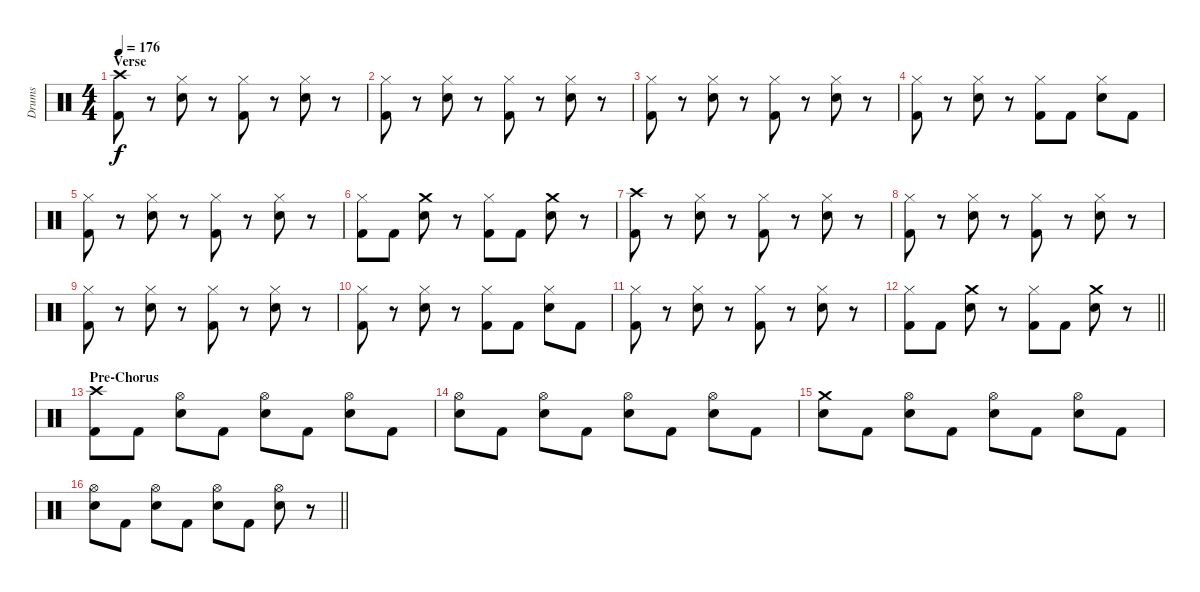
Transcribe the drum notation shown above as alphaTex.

\track ("Drums" "Drums") {instrument percussion}
\staff {score}
\articulation defaults
\ts (4 4)
\section ("" "Verse")
\tempo 176
\clef neutral
\ks c
("Crash high (hit)" "Kick (hit) 2").8{dy f} r.8 ("Hi-Hat (closed)" "Electric Snare (hit)").8 r.8 ("Hi-Hat (closed)" "Kick (hit) 2").8 r.8 ("Hi-Hat (closed)" "Electric Snare (hit)").8 r.8 |
("Hi-Hat (closed)" "Kick (hit) 2").8 r.8 ("Hi-Hat (closed)" "Electric Snare (hit)").8 r.8 ("Hi-Hat (closed)" "Kick (hit) 2").8 r.8 ("Hi-Hat (closed)" "Electric Snare (hit)").8 r.8 |
("Hi-Hat (closed)" "Kick (hit) 2").8 r.8 ("Hi-Hat (closed)" "Electric Snare (hit)").8 r.8 ("Hi-Hat (closed)" "Kick (hit) 2").8 r.8 ("Hi-Hat (closed)" "Electric Snare (hit)").8 r.8 |
("Hi-Hat (closed)" "Kick (hit) 2").8 r.8 ("Hi-Hat (closed)" "Electric Snare (hit)").8 r.8 ("Hi-Hat (closed)" "Kick (hit) 2").8 "Kick (hit) 2".8 ("Hi-Hat (closed)" "Electric Snare (hit)").8 "Kick (hit) 2".8 |
("Hi-Hat (closed)" "Kick (hit) 2").8 r.8 ("Hi-Hat (closed)" "Electric Snare (hit)").8 r.8 ("Hi-Hat (closed)" "Kick (hit) 2").8 r.8 ("Hi-Hat (closed)" "Electric Snare (hit)").8 r.8 |
("Hi-Hat (closed)" "Kick (hit) 2").8 "Kick (hit) 2".8 ("Crash medium (hit)" "Electric Snare (hit)").8 r.8 ("Hi-Hat (closed)" "Kick (hit) 2").8 "Kick (hit) 2".8 ("Crash medium (hit)" "Electric Snare (hit)").8 r.8 |
("Crash high (hit)" "Kick (hit) 2").8 r.8 ("Hi-Hat (closed)" "Electric Snare (hit)").8 r.8 ("Hi-Hat (closed)" "Kick (hit) 2").8 r.8 ("Hi-Hat (closed)" "Electric Snare (hit)").8 r.8 |
("Hi-Hat (closed)" "Kick (hit) 2").8 r.8 ("Hi-Hat (closed)" "Electric Snare (hit)").8 r.8 ("Hi-Hat (closed)" "Kick (hit) 2").8 r.8 ("Hi-Hat (closed)" "Electric Snare (hit)").8 r.8 |
("Hi-Hat (closed)" "Kick (hit) 2").8 r.8 ("Hi-Hat (closed)" "Electric Snare (hit)").8 r.8 ("Hi-Hat (closed)" "Kick (hit) 2").8 r.8 ("Hi-Hat (closed)" "Electric Snare (hit)").8 r.8 |
("Hi-Hat (closed)" "Kick (hit) 2").8 r.8 ("Hi-Hat (closed)" "Electric Snare (hit)").8 r.8 ("Hi-Hat (closed)" "Kick (hit) 2").8 "Kick (hit) 2".8 ("Hi-Hat (closed)" "Electric Snare (hit)").8 "Kick (hit) 2".8 |
("Hi-Hat (closed)" "Kick (hit) 2").8 r.8 ("Hi-Hat (closed)" "Electric Snare (hit)").8 r.8 ("Hi-Hat (closed)" "Kick (hit) 2").8 r.8 ("Hi-Hat (closed)" "Electric Snare (hit)").8 r.8 |
\barLineRight lightlight
("Hi-Hat (closed)" "Kick (hit) 2").8 "Kick (hit) 2".8 ("Crash medium (hit)" "Electric Snare (hit)").8 r.8 ("Hi-Hat (closed)" "Kick (hit) 2").8 "Kick (hit) 2".8 ("Crash medium (hit)" "Electric Snare (hit)").8 r.8 |
\section ("" "Pre-Chorus")
("Crash high (hit)" "Kick (hit) 2").8 "Kick (hit) 2".8 ("Hi-Hat (open)" "Electric Snare (hit)").8 "Kick (hit) 2".8 ("Hi-Hat (open)" "Electric Snare (hit)").8 "Kick (hit) 2".8 ("Hi-Hat (open)" "Electric Snare (hit)").8 "Kick (hit) 2".8 |
("Hi-Hat (open)" "Electric Snare (hit)").8 "Kick (hit) 2".8 ("Hi-Hat (open)" "Electric Snare (hit)").8 "Kick (hit) 2".8 ("Hi-Hat (open)" "Electric Snare (hit)").8 "Kick (hit) 2".8 ("Hi-Hat (open)" "Electric Snare (hit)").8 "Kick (hit) 2".8 |
("Crash medium (hit)" "Electric Snare (hit)").8 "Kick (hit) 2".8 ("Hi-Hat (open)" "Electric Snare (hit)").8 "Kick (hit) 2".8 ("Hi-Hat (open)" "Electric Snare (hit)").8 "Kick (hit) 2".8 ("Hi-Hat (open)" "Electric Snare (hit)").8 "Kick (hit) 2".8 |
\barLineRight lightlight
("Hi-Hat (open)" "Electric Snare (hit)").8 "Kick (hit) 2".8 ("Hi-Hat (open)" "Electric Snare (hit)").8 "Kick (hit) 2".8 ("Hi-Hat (open)" "Electric Snare (hit)").8 "Kick (hit) 2".8 ("Hi-Hat (open)" "Electric Snare (hit)").8 r.8
